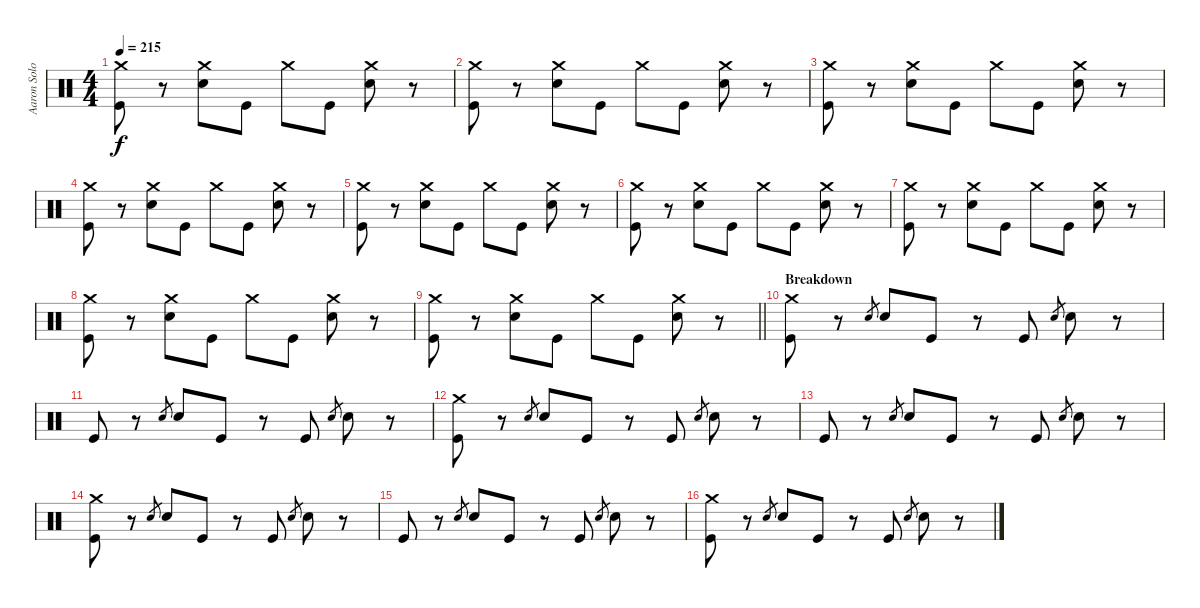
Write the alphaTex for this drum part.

\track ("Aaron Solowoniuk" "Aaron Solo") {instrument percussion}
\staff {score}
\articulation defaults
\ts (4 4)
\tempo 215
\clef neutral
\ks c
("Crash medium (hit)" "Kick (hit)").8{dy f} r.8 ("Crash medium (hit)" "Electric Snare (hit)").8 "Kick (hit)".8 "Crash medium (hit)".8 "Kick (hit)".8 ("Crash medium (hit)" "Electric Snare (hit)").8 r.8 |
("Crash medium (hit)" "Kick (hit)").8 r.8 ("Crash medium (hit)" "Electric Snare (hit)").8 "Kick (hit)".8 "Crash medium (hit)".8 "Kick (hit)".8 ("Crash medium (hit)" "Electric Snare (hit)").8 r.8 |
("Crash medium (hit)" "Kick (hit)").8 r.8 ("Crash medium (hit)" "Electric Snare (hit)").8 "Kick (hit)".8 "Crash medium (hit)".8 "Kick (hit)".8 ("Crash medium (hit)" "Electric Snare (hit)").8 r.8 |
("Crash medium (hit)" "Kick (hit)").8 r.8 ("Crash medium (hit)" "Electric Snare (hit)").8 "Kick (hit)".8 "Crash medium (hit)".8 "Kick (hit)".8 ("Crash medium (hit)" "Electric Snare (hit)").8 r.8 |
("Crash medium (hit)" "Kick (hit)").8 r.8 ("Crash medium (hit)" "Electric Snare (hit)").8 "Kick (hit)".8 "Crash medium (hit)".8 "Kick (hit)".8 ("Crash medium (hit)" "Electric Snare (hit)").8 r.8 |
("Crash medium (hit)" "Kick (hit)").8 r.8 ("Crash medium (hit)" "Electric Snare (hit)").8 "Kick (hit)".8 "Crash medium (hit)".8 "Kick (hit)".8 ("Crash medium (hit)" "Electric Snare (hit)").8 r.8 |
("Crash medium (hit)" "Kick (hit)").8 r.8 ("Crash medium (hit)" "Electric Snare (hit)").8 "Kick (hit)".8 "Crash medium (hit)".8 "Kick (hit)".8 ("Crash medium (hit)" "Electric Snare (hit)").8 r.8 |
("Crash medium (hit)" "Kick (hit)").8 r.8 ("Crash medium (hit)" "Electric Snare (hit)").8 "Kick (hit)".8 "Crash medium (hit)".8 "Kick (hit)".8 ("Crash medium (hit)" "Electric Snare (hit)").8 r.8 |
\barLineRight lightlight
("Crash medium (hit)" "Kick (hit)").8 r.8 ("Crash medium (hit)" "Electric Snare (hit)").8 "Kick (hit)".8 "Crash medium (hit)".8 "Kick (hit)".8 ("Crash medium (hit)" "Electric Snare (hit)").8 r.8 |
\section ("" "Breakdown")
("Crash medium (hit)" "Kick (hit)").8 r.8 "Electric Snare (hit)".8{gr} "Electric Snare (hit)".8 "Kick (hit)".8 r.8 "Kick (hit)".8 "Electric Snare (hit)".8{gr} "Electric Snare (hit)".8 r.8 |
"Kick (hit)".8 r.8 "Electric Snare (hit)".8{gr} "Electric Snare (hit)".8 "Kick (hit)".8 r.8 "Kick (hit)".8 "Electric Snare (hit)".8{gr} "Electric Snare (hit)".8 r.8 |
("Crash medium (hit)" "Kick (hit)").8 r.8 "Electric Snare (hit)".8{gr} "Electric Snare (hit)".8 "Kick (hit)".8 r.8 "Kick (hit)".8 "Electric Snare (hit)".8{gr} "Electric Snare (hit)".8 r.8 |
"Kick (hit)".8 r.8 "Electric Snare (hit)".8{gr} "Electric Snare (hit)".8 "Kick (hit)".8 r.8 "Kick (hit)".8 "Electric Snare (hit)".8{gr} "Electric Snare (hit)".8 r.8 |
("Crash medium (hit)" "Kick (hit)").8 r.8 "Electric Snare (hit)".8{gr} "Electric Snare (hit)".8 "Kick (hit)".8 r.8 "Kick (hit)".8 "Electric Snare (hit)".8{gr} "Electric Snare (hit)".8 r.8 |
"Kick (hit)".8 r.8 "Electric Snare (hit)".8{gr} "Electric Snare (hit)".8 "Kick (hit)".8 r.8 "Kick (hit)".8 "Electric Snare (hit)".8{gr} "Electric Snare (hit)".8 r.8 |
("Crash medium (hit)" "Kick (hit)").8 r.8 "Electric Snare (hit)".8{gr} "Electric Snare (hit)".8 "Kick (hit)".8 r.8 "Kick (hit)".8 "Electric Snare (hit)".8{gr} "Electric Snare (hit)".8 r.8
